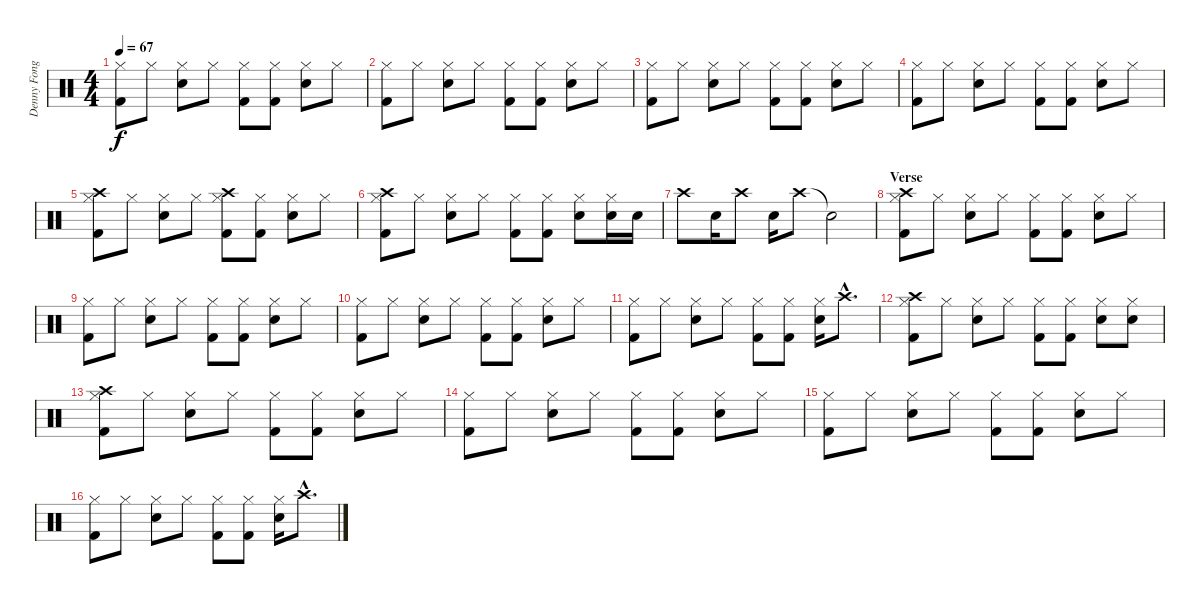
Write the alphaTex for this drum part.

\track ("Denny Fongheiser - Drums" "Denny Fong") {instrument percussion}
\staff {score}
\articulation defaults
\ts (4 4)
\tempo 67
\clef neutral
\ks c
("Hi-Hat (closed)" "Kick (hit) 2").8{dy f} "Hi-Hat (closed)".8 ("Hi-Hat (closed)" "Snare (hit) 2").8 "Hi-Hat (closed)".8 ("Hi-Hat (closed)" "Kick (hit) 2").8 ("Hi-Hat (closed)" "Kick (hit) 2").8 ("Hi-Hat (closed)" "Snare (hit) 2").8 "Hi-Hat (closed)".8 |
("Hi-Hat (closed)" "Kick (hit) 2").8 "Hi-Hat (closed)".8 ("Hi-Hat (closed)" "Snare (hit) 2").8 "Hi-Hat (closed)".8 ("Hi-Hat (closed)" "Kick (hit) 2").8 ("Hi-Hat (closed)" "Kick (hit) 2").8 ("Hi-Hat (closed)" "Snare (hit) 2").8 "Hi-Hat (closed)".8 |
("Hi-Hat (closed)" "Kick (hit) 2").8 "Hi-Hat (closed)".8 ("Hi-Hat (closed)" "Snare (hit) 2").8 "Hi-Hat (closed)".8 ("Hi-Hat (closed)" "Kick (hit) 2").8 ("Hi-Hat (closed)" "Kick (hit) 2").8 ("Hi-Hat (closed)" "Snare (hit) 2").8 "Hi-Hat (closed)".8 |
("Hi-Hat (closed)" "Kick (hit) 2").8 "Hi-Hat (closed)".8 ("Hi-Hat (closed)" "Snare (hit) 2").8 "Hi-Hat (closed)".8 ("Hi-Hat (closed)" "Kick (hit) 2").8 ("Hi-Hat (closed)" "Kick (hit) 2").8 ("Hi-Hat (closed)" "Snare (hit) 2").8 "Hi-Hat (closed)".8 |
("Hi-Hat (closed)" "Kick (hit) 2" "Crash high (hit)").8 "Hi-Hat (closed)".8 ("Hi-Hat (closed)" "Snare (hit) 2").8 "Hi-Hat (closed)".8 ("Hi-Hat (closed)" "Kick (hit) 2" "Crash high (hit)").8 ("Hi-Hat (closed)" "Kick (hit) 2").8 ("Hi-Hat (closed)" "Snare (hit) 2").8 "Hi-Hat (closed)".8 |
("Hi-Hat (closed)" "Kick (hit) 2" "Crash high (hit)").8 "Hi-Hat (closed)".8 ("Hi-Hat (closed)" "Snare (hit) 2").8 "Hi-Hat (closed)".8 ("Hi-Hat (closed)" "Kick (hit) 2").8 ("Hi-Hat (closed)" "Kick (hit) 2").8 ("Hi-Hat (closed)" "Snare (hit) 2").8 ("Hi-Hat (closed)" "Snare (hit) 2").16 "Snare (hit) 2".16 |
"Crash high (hit)".8 "Snare (hit) 2".16 "Crash high (hit)".8 "Snare (hit) 2".16 "Crash high (hit)".8 "Snare (hit)"{t}.2 |
\section ("" "Verse")
("Hi-Hat (closed)" "Kick (hit) 2" "Crash high (hit)").8 "Hi-Hat (closed)".8 ("Hi-Hat (closed)" "Snare (hit) 2").8 "Hi-Hat (closed)".8 ("Hi-Hat (closed)" "Kick (hit) 2").8 ("Hi-Hat (closed)" "Kick (hit) 2").8 ("Hi-Hat (closed)" "Snare (hit) 2").8 "Hi-Hat (closed)".8 |
("Hi-Hat (closed)" "Kick (hit) 2").8 "Hi-Hat (closed)".8 ("Hi-Hat (closed)" "Snare (hit) 2").8 "Hi-Hat (closed)".8 ("Hi-Hat (closed)" "Kick (hit) 2").8 ("Hi-Hat (closed)" "Kick (hit) 2").8 ("Hi-Hat (closed)" "Snare (hit) 2").8 "Hi-Hat (closed)".8 |
("Hi-Hat (closed)" "Kick (hit) 2").8 "Hi-Hat (closed)".8 ("Hi-Hat (closed)" "Snare (hit) 2").8 "Hi-Hat (closed)".8 ("Hi-Hat (closed)" "Kick (hit) 2").8 ("Hi-Hat (closed)" "Kick (hit) 2").8 ("Hi-Hat (closed)" "Snare (hit) 2").8 "Hi-Hat (closed)".8 |
("Hi-Hat (closed)" "Kick (hit) 2").8 "Hi-Hat (closed)".8 ("Hi-Hat (closed)" "Snare (hit) 2").8 "Hi-Hat (closed)".8 ("Hi-Hat (closed)" "Kick (hit) 2").8 ("Hi-Hat (closed)" "Kick (hit) 2").8 ("Hi-Hat (closed)" "Snare (hit) 2").16 "Crash high (hit)"{hac}.8{d} |
("Crash high (hit)" "Hi-Hat (closed)" "Kick (hit) 2").8 "Hi-Hat (closed)".8 ("Hi-Hat (closed)" "Snare (hit) 2").8 "Hi-Hat (closed)".8 ("Hi-Hat (closed)" "Kick (hit) 2").8 ("Hi-Hat (closed)" "Kick (hit) 2").8 ("Hi-Hat (closed)" "Snare (hit) 2").8 ("Hi-Hat (closed)" "Snare (hit) 2").8 |
("Hi-Hat (closed)" "Kick (hit) 2" "Crash high (hit)").8 "Hi-Hat (closed)".8 ("Hi-Hat (closed)" "Snare (hit) 2").8 "Hi-Hat (closed)".8 ("Hi-Hat (closed)" "Kick (hit) 2").8 ("Hi-Hat (closed)" "Kick (hit) 2").8 ("Hi-Hat (closed)" "Snare (hit) 2").8 "Hi-Hat (closed)".8 |
("Hi-Hat (closed)" "Kick (hit) 2").8 "Hi-Hat (closed)".8 ("Hi-Hat (closed)" "Snare (hit) 2").8 "Hi-Hat (closed)".8 ("Hi-Hat (closed)" "Kick (hit) 2").8 ("Hi-Hat (closed)" "Kick (hit) 2").8 ("Hi-Hat (closed)" "Snare (hit) 2").8 "Hi-Hat (closed)".8 |
("Hi-Hat (closed)" "Kick (hit) 2").8 "Hi-Hat (closed)".8 ("Hi-Hat (closed)" "Snare (hit) 2").8 "Hi-Hat (closed)".8 ("Hi-Hat (closed)" "Kick (hit) 2").8 ("Hi-Hat (closed)" "Kick (hit) 2").8 ("Hi-Hat (closed)" "Snare (hit) 2").8 "Hi-Hat (closed)".8 |
("Hi-Hat (closed)" "Kick (hit) 2").8 "Hi-Hat (closed)".8 ("Hi-Hat (closed)" "Snare (hit) 2").8 "Hi-Hat (closed)".8 ("Hi-Hat (closed)" "Kick (hit) 2").8 ("Hi-Hat (closed)" "Kick (hit) 2").8 ("Hi-Hat (closed)" "Snare (hit) 2").16 "Crash high (hit)"{hac}.8{d}
